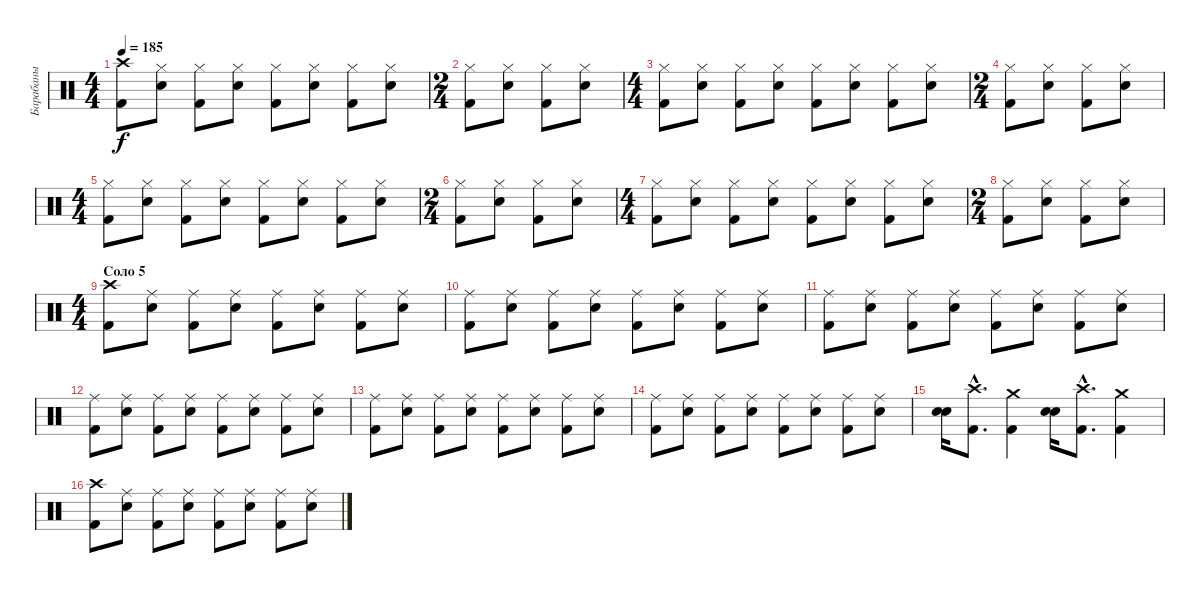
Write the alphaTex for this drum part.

\track ("Барабаны" "Барабаны") {instrument percussion}
\staff {score}
\articulation defaults
\ts (4 4)
\tempo 185
\clef neutral
\ks c
("Crash high (hit)" "Kick (hit) 2").8{dy f} ("Hi-Hat (closed)" "Snare (hit) 2").8 ("Hi-Hat (closed)" "Kick (hit) 2").8 ("Hi-Hat (closed)" "Snare (hit) 2").8 ("Hi-Hat (closed)" "Kick (hit) 2").8 ("Hi-Hat (closed)" "Snare (hit) 2").8 ("Hi-Hat (closed)" "Kick (hit) 2").8 ("Hi-Hat (closed)" "Snare (hit) 2").8 |
\ts (2 4)
("Hi-Hat (closed)" "Kick (hit) 2").8 ("Hi-Hat (closed)" "Snare (hit) 2").8 ("Hi-Hat (closed)" "Kick (hit) 2").8 ("Hi-Hat (closed)" "Snare (hit) 2").8 |
\ts (4 4)
("Hi-Hat (closed)" "Kick (hit) 2").8 ("Hi-Hat (closed)" "Snare (hit) 2").8 ("Hi-Hat (closed)" "Kick (hit) 2").8 ("Hi-Hat (closed)" "Snare (hit) 2").8 ("Hi-Hat (closed)" "Kick (hit) 2").8 ("Hi-Hat (closed)" "Snare (hit) 2").8 ("Hi-Hat (closed)" "Kick (hit) 2").8 ("Hi-Hat (closed)" "Snare (hit) 2").8 |
\ts (2 4)
("Hi-Hat (closed)" "Kick (hit) 2").8 ("Hi-Hat (closed)" "Snare (hit) 2").8 ("Hi-Hat (closed)" "Kick (hit) 2").8 ("Hi-Hat (closed)" "Snare (hit) 2").8 |
\ts (4 4)
("Hi-Hat (closed)" "Kick (hit) 2").8 ("Hi-Hat (closed)" "Snare (hit) 2").8 ("Hi-Hat (closed)" "Kick (hit) 2").8 ("Hi-Hat (closed)" "Snare (hit) 2").8 ("Hi-Hat (closed)" "Kick (hit) 2").8 ("Hi-Hat (closed)" "Snare (hit) 2").8 ("Hi-Hat (closed)" "Kick (hit) 2").8 ("Hi-Hat (closed)" "Snare (hit) 2").8 |
\ts (2 4)
("Hi-Hat (closed)" "Kick (hit) 2").8 ("Hi-Hat (closed)" "Snare (hit) 2").8 ("Hi-Hat (closed)" "Kick (hit) 2").8 ("Hi-Hat (closed)" "Snare (hit) 2").8 |
\ts (4 4)
("Hi-Hat (closed)" "Kick (hit) 2").8 ("Hi-Hat (closed)" "Snare (hit) 2").8 ("Hi-Hat (closed)" "Kick (hit) 2").8 ("Hi-Hat (closed)" "Snare (hit) 2").8 ("Hi-Hat (closed)" "Kick (hit) 2").8 ("Hi-Hat (closed)" "Snare (hit) 2").8 ("Hi-Hat (closed)" "Kick (hit) 2").8 ("Hi-Hat (closed)" "Snare (hit) 2").8 |
\ts (2 4)
("Hi-Hat (closed)" "Kick (hit) 2").8 ("Hi-Hat (closed)" "Snare (hit) 2").8 ("Hi-Hat (closed)" "Kick (hit) 2").8 ("Hi-Hat (closed)" "Snare (hit) 2").8 |
\ts (4 4)
\section ("" "Соло 5")
("Crash high (hit)" "Kick (hit) 2").8 ("Ride (middle)" "Snare (hit) 2").8 ("Ride (middle)" "Kick (hit) 2").8 ("Ride (middle)" "Snare (hit) 2").8 ("Ride (middle)" "Kick (hit) 2").8 ("Ride (middle)" "Snare (hit) 2").8 ("Ride (middle)" "Kick (hit) 2").8 ("Ride (middle)" "Snare (hit) 2").8 |
("Ride (middle)" "Kick (hit) 2").8 ("Ride (middle)" "Snare (hit) 2").8 ("Ride (middle)" "Kick (hit) 2").8 ("Ride (middle)" "Snare (hit) 2").8 ("Ride (middle)" "Kick (hit) 2").8 ("Ride (middle)" "Snare (hit) 2").8 ("Ride (middle)" "Kick (hit) 2").8 ("Ride (middle)" "Snare (hit) 2").8 |
("Ride (middle)" "Kick (hit) 2").8 ("Ride (middle)" "Snare (hit) 2").8 ("Ride (middle)" "Kick (hit) 2").8 ("Ride (middle)" "Snare (hit) 2").8 ("Ride (middle)" "Kick (hit) 2").8 ("Ride (middle)" "Snare (hit) 2").8 ("Ride (middle)" "Kick (hit) 2").8 ("Ride (middle)" "Snare (hit) 2").8 |
("Ride (middle)" "Kick (hit) 2").8 ("Ride (middle)" "Snare (hit) 2").8 ("Ride (middle)" "Kick (hit) 2").8 ("Ride (middle)" "Snare (hit) 2").8 ("Ride (middle)" "Kick (hit) 2").8 ("Ride (middle)" "Snare (hit) 2").8 ("Ride (middle)" "Kick (hit) 2").8 ("Ride (middle)" "Snare (hit) 2").8 |
("Ride (middle)" "Kick (hit) 2").8 ("Ride (middle)" "Snare (hit) 2").8 ("Ride (middle)" "Kick (hit) 2").8 ("Ride (middle)" "Snare (hit) 2").8 ("Ride (middle)" "Kick (hit) 2").8 ("Ride (middle)" "Snare (hit) 2").8 ("Ride (middle)" "Kick (hit) 2").8 ("Ride (middle)" "Snare (hit) 2").8 |
("Ride (middle)" "Kick (hit) 2").8 ("Ride (middle)" "Snare (hit) 2").8 ("Ride (middle)" "Kick (hit) 2").8 ("Ride (middle)" "Snare (hit) 2").8 ("Ride (middle)" "Kick (hit) 2").8 ("Ride (middle)" "Snare (hit) 2").8 ("Ride (middle)" "Kick (hit) 2").8 ("Ride (middle)" "Snare (hit) 2").8 |
("Snare (hit) 2" "Snare (hit) 2").16 ("Crash high (hit)"{hac} "Kick (hit) 2"{hac}).8{d} ("Crash medium (hit)" "Kick (hit) 2").4 ("Snare (hit) 2" "Snare (hit) 2").16 ("Crash high (hit)"{hac} "Kick (hit) 2"{hac}).8{d} ("Crash medium (hit)" "Kick (hit) 2").4 |
("Crash high (hit)" "Kick (hit) 2").8 ("Ride (middle)" "Snare (hit) 2").8 ("Ride (middle)" "Kick (hit) 2").8 ("Ride (middle)" "Snare (hit) 2").8 ("Ride (middle)" "Kick (hit) 2").8 ("Ride (middle)" "Snare (hit) 2").8 ("Ride (middle)" "Kick (hit) 2").8 ("Ride (middle)" "Snare (hit) 2").8
